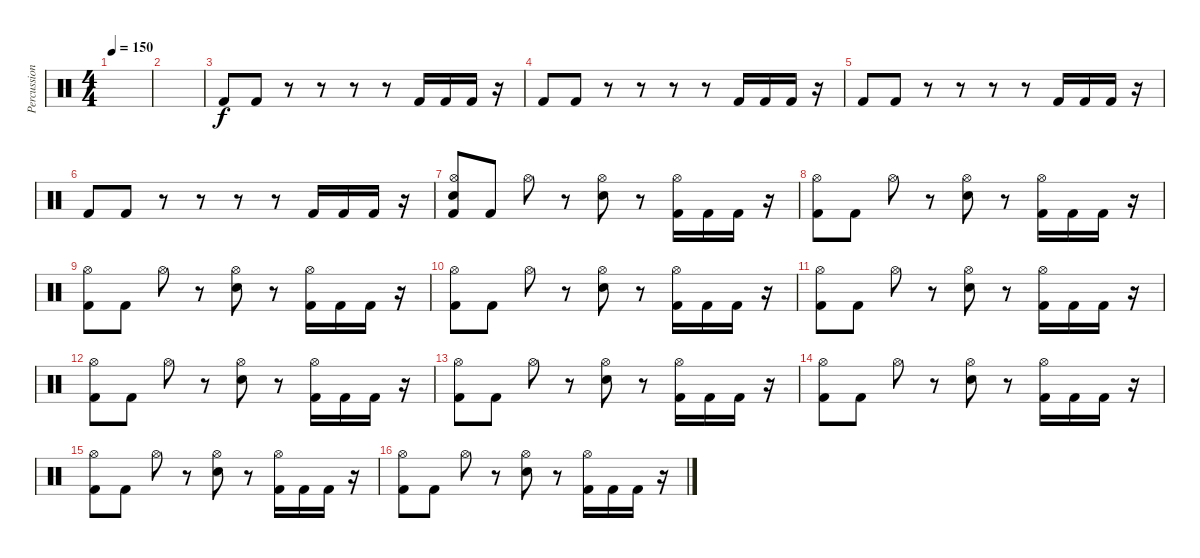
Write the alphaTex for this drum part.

\track ("Percussions" "Percussion") {instrument percussion}
\staff {score}
\articulation defaults
\ts (4 4)
\tempo 150
\clef neutral
\ks c
|
|
"Kick (hit) 2".8{dy f} "Kick (hit) 2".8 r.8 r.8 r.8 r.8 "Kick (hit) 2".16 "Kick (hit) 2".16 "Kick (hit) 2".16 r.16 |
"Kick (hit) 2".8 "Kick (hit) 2".8 r.8 r.8 r.8 r.8 "Kick (hit) 2".16 "Kick (hit) 2".16 "Kick (hit) 2".16 r.16 |
"Kick (hit) 2".8 "Kick (hit) 2".8 r.8 r.8 r.8 r.8 "Kick (hit) 2".16 "Kick (hit) 2".16 "Kick (hit) 2".16 r.16 |
"Kick (hit) 2".8 "Kick (hit) 2".8 r.8 r.8 r.8 r.8 "Kick (hit) 2".16 "Kick (hit) 2".16 "Kick (hit) 2".16 r.16 |
("Hi-Hat (open)" "Electric Snare (hit)" "Kick (hit) 2").8 "Kick (hit) 2".8 "Hi-Hat (open)".8 r.8 ("Hi-Hat (open)" "Electric Snare (hit)").8 r.8 ("Hi-Hat (open)" "Kick (hit) 2").16 "Kick (hit) 2".16 "Kick (hit) 2".16 r.16 |
("Hi-Hat (open)" "Kick (hit) 2").8 "Kick (hit) 2".8 "Hi-Hat (open)".8 r.8 ("Hi-Hat (open)" "Electric Snare (hit)").8 r.8 ("Hi-Hat (open)" "Kick (hit) 2").16 "Kick (hit) 2".16 "Kick (hit) 2".16 r.16 |
("Hi-Hat (open)" "Kick (hit) 2").8 "Kick (hit) 2".8 "Hi-Hat (open)".8 r.8 ("Hi-Hat (open)" "Electric Snare (hit)").8 r.8 ("Hi-Hat (open)" "Kick (hit) 2").16 "Kick (hit) 2".16 "Kick (hit) 2".16 r.16 |
("Hi-Hat (open)" "Kick (hit) 2").8 "Kick (hit) 2".8 "Hi-Hat (open)".8 r.8 ("Hi-Hat (open)" "Electric Snare (hit)").8 r.8 ("Hi-Hat (open)" "Kick (hit) 2").16 "Kick (hit) 2".16 "Kick (hit) 2".16 r.16 |
("Hi-Hat (open)" "Kick (hit) 2").8 "Kick (hit) 2".8 "Hi-Hat (open)".8 r.8 ("Hi-Hat (open)" "Electric Snare (hit)").8 r.8 ("Hi-Hat (open)" "Kick (hit) 2").16 "Kick (hit) 2".16 "Kick (hit) 2".16 r.16 |
("Hi-Hat (open)" "Kick (hit) 2").8 "Kick (hit) 2".8 "Hi-Hat (open)".8 r.8 ("Hi-Hat (open)" "Electric Snare (hit)").8 r.8 ("Hi-Hat (open)" "Kick (hit) 2").16 "Kick (hit) 2".16 "Kick (hit) 2".16 r.16 |
("Hi-Hat (open)" "Kick (hit) 2").8 "Kick (hit) 2".8 "Hi-Hat (open)".8 r.8 ("Hi-Hat (open)" "Electric Snare (hit)").8 r.8 ("Hi-Hat (open)" "Kick (hit) 2").16 "Kick (hit) 2".16 "Kick (hit) 2".16 r.16 |
("Hi-Hat (open)" "Kick (hit) 2").8 "Kick (hit) 2".8 "Hi-Hat (open)".8 r.8 ("Hi-Hat (open)" "Electric Snare (hit)").8 r.8 ("Hi-Hat (open)" "Kick (hit) 2").16 "Kick (hit) 2".16 "Kick (hit) 2".16 r.16 |
("Hi-Hat (open)" "Kick (hit) 2").8 "Kick (hit) 2".8 "Hi-Hat (open)".8 r.8 ("Hi-Hat (open)" "Electric Snare (hit)").8 r.8 ("Hi-Hat (open)" "Kick (hit) 2").16 "Kick (hit) 2".16 "Kick (hit) 2".16 r.16 |
("Hi-Hat (open)" "Kick (hit) 2").8 "Kick (hit) 2".8 "Hi-Hat (open)".8 r.8 ("Hi-Hat (open)" "Electric Snare (hit)").8 r.8 ("Hi-Hat (open)" "Kick (hit) 2").16 "Kick (hit) 2".16 "Kick (hit) 2".16 r.16
